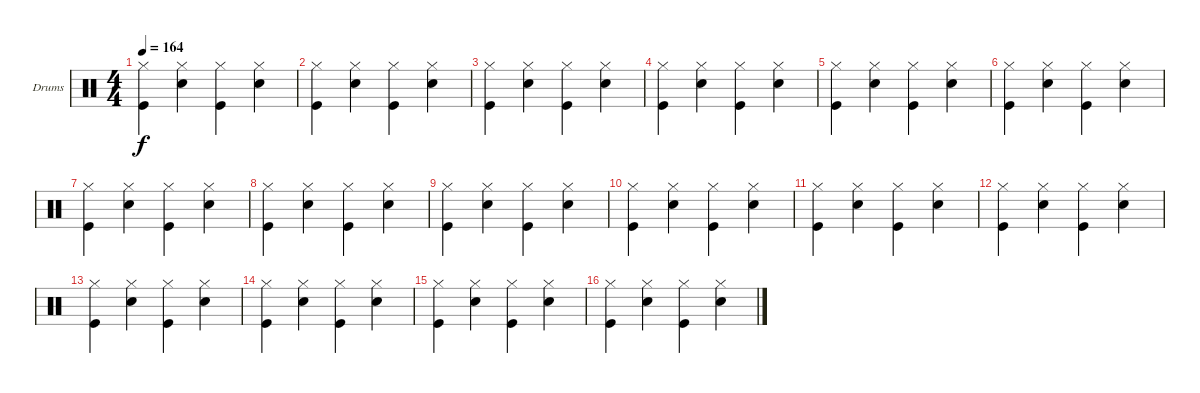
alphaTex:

\bracketExtendMode groupsimilarinstruments
\firstSystemTrackNameOrientation horizontal
\otherSystemsTrackNameOrientation horizontal
\track ("Drumkit" "Drums") {instrument percussion}
\staff {score}
\articulation defaults
\ts (4 4)
\tempo 164
\clef neutral
\ks c
("Hi-Hat (closed)" "Kick (hit)").4{dy f} ("Hi-Hat (closed)" "Snare (hit) 2").4 ("Hi-Hat (closed)" "Kick (hit)").4 ("Hi-Hat (closed)" "Snare (hit) 2").4 |
("Hi-Hat (closed)" "Kick (hit)").4 ("Hi-Hat (closed)" "Snare (hit) 2").4 ("Hi-Hat (closed)" "Kick (hit)").4 ("Hi-Hat (closed)" "Snare (hit) 2").4 |
("Hi-Hat (closed)" "Kick (hit)").4 ("Hi-Hat (closed)" "Snare (hit) 2").4 ("Hi-Hat (closed)" "Kick (hit)").4 ("Hi-Hat (closed)" "Snare (hit) 2").4 |
("Hi-Hat (closed)" "Kick (hit)").4 ("Hi-Hat (closed)" "Snare (hit) 2").4 ("Hi-Hat (closed)" "Kick (hit)").4 ("Hi-Hat (closed)" "Snare (hit) 2").4 |
("Hi-Hat (closed)" "Kick (hit)").4 ("Hi-Hat (closed)" "Snare (hit) 2").4 ("Hi-Hat (closed)" "Kick (hit)").4 ("Hi-Hat (closed)" "Snare (hit) 2").4 |
("Hi-Hat (closed)" "Kick (hit)").4 ("Hi-Hat (closed)" "Snare (hit) 2").4 ("Hi-Hat (closed)" "Kick (hit)").4 ("Hi-Hat (closed)" "Snare (hit) 2").4 |
("Hi-Hat (closed)" "Kick (hit)").4 ("Hi-Hat (closed)" "Snare (hit) 2").4 ("Hi-Hat (closed)" "Kick (hit)").4 ("Hi-Hat (closed)" "Snare (hit) 2").4 |
("Hi-Hat (closed)" "Kick (hit)").4 ("Hi-Hat (closed)" "Snare (hit) 2").4 ("Hi-Hat (closed)" "Kick (hit)").4 ("Hi-Hat (closed)" "Snare (hit) 2").4 |
("Hi-Hat (closed)" "Kick (hit)").4 ("Hi-Hat (closed)" "Snare (hit) 2").4 ("Hi-Hat (closed)" "Kick (hit)").4 ("Hi-Hat (closed)" "Snare (hit) 2").4 |
("Hi-Hat (closed)" "Kick (hit)").4 ("Hi-Hat (closed)" "Snare (hit) 2").4 ("Hi-Hat (closed)" "Kick (hit)").4 ("Hi-Hat (closed)" "Snare (hit) 2").4 |
("Hi-Hat (closed)" "Kick (hit)").4 ("Hi-Hat (closed)" "Snare (hit) 2").4 ("Hi-Hat (closed)" "Kick (hit)").4 ("Hi-Hat (closed)" "Snare (hit) 2").4 |
("Hi-Hat (closed)" "Kick (hit)").4 ("Hi-Hat (closed)" "Snare (hit) 2").4 ("Hi-Hat (closed)" "Kick (hit)").4 ("Hi-Hat (closed)" "Snare (hit) 2").4 |
("Hi-Hat (closed)" "Kick (hit)").4 ("Hi-Hat (closed)" "Snare (hit) 2").4 ("Hi-Hat (closed)" "Kick (hit)").4 ("Hi-Hat (closed)" "Snare (hit) 2").4 |
("Hi-Hat (closed)" "Kick (hit)").4 ("Hi-Hat (closed)" "Snare (hit) 2").4 ("Hi-Hat (closed)" "Kick (hit)").4 ("Hi-Hat (closed)" "Snare (hit) 2").4 |
("Hi-Hat (closed)" "Kick (hit)").4 ("Hi-Hat (closed)" "Snare (hit) 2").4 ("Hi-Hat (closed)" "Kick (hit)").4 ("Hi-Hat (closed)" "Snare (hit) 2").4 |
("Hi-Hat (closed)" "Kick (hit)").4 ("Hi-Hat (closed)" "Snare (hit) 2").4 ("Hi-Hat (closed)" "Kick (hit)").4 ("Hi-Hat (closed)" "Snare (hit) 2").4
